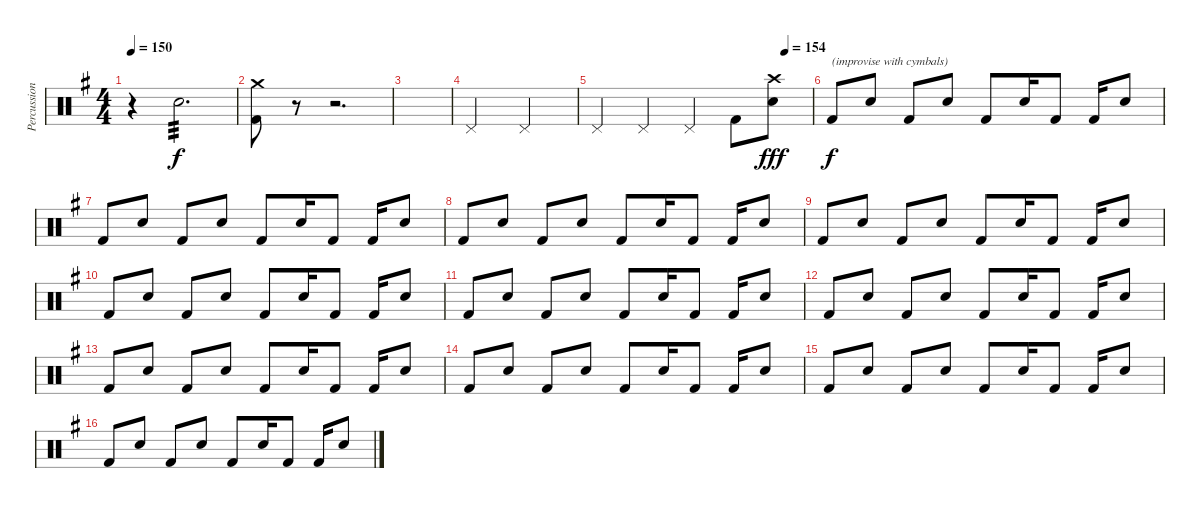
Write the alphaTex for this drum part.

\track ("Percussion" "Percussion") {instrument percussion}
\staff {score}
\articulation defaults
\ts (4 4)
\tempo 150
\clef neutral
\ks eminor
r.4{dy f} "Electric Snare (hit)".2{d tp 3} |
("Kick (hit) 2" "Crash medium (hit)").8 r.8 r.2{d} |
|
"Pedal Hi-Hat (hit)".2 "Pedal Hi-Hat (hit)".2 |
\tempo (154 0.875)
"Pedal Hi-Hat (hit)".4 "Pedal Hi-Hat (hit)".4 "Pedal Hi-Hat (hit)".4 "Kick (hit) 2".8 ("Electric Snare (hit)" "Crash high (hit)").8{dy fff} |
"Kick (hit) 2".8{txt "(improvise with cymbals)" dy f} "Electric Snare (hit)".8 "Kick (hit) 2".8 "Electric Snare (hit)".8 "Kick (hit) 2".8 "Electric Snare (hit)".16 "Kick (hit) 2".8 "Kick (hit) 2".16 "Electric Snare (hit)".8 |
"Kick (hit) 2".8 "Electric Snare (hit)".8 "Kick (hit) 2".8 "Electric Snare (hit)".8 "Kick (hit) 2".8 "Electric Snare (hit)".16 "Kick (hit) 2".8 "Kick (hit) 2".16 "Electric Snare (hit)".8 |
"Kick (hit) 2".8 "Electric Snare (hit)".8 "Kick (hit) 2".8 "Electric Snare (hit)".8 "Kick (hit) 2".8 "Electric Snare (hit)".16 "Kick (hit) 2".8 "Kick (hit) 2".16 "Electric Snare (hit)".8 |
"Kick (hit) 2".8 "Electric Snare (hit)".8 "Kick (hit) 2".8 "Electric Snare (hit)".8 "Kick (hit) 2".8 "Electric Snare (hit)".16 "Kick (hit) 2".8 "Kick (hit) 2".16 "Electric Snare (hit)".8 |
"Kick (hit) 2".8 "Electric Snare (hit)".8 "Kick (hit) 2".8 "Electric Snare (hit)".8 "Kick (hit) 2".8 "Electric Snare (hit)".16 "Kick (hit) 2".8 "Kick (hit) 2".16 "Electric Snare (hit)".8 |
"Kick (hit) 2".8 "Electric Snare (hit)".8 "Kick (hit) 2".8 "Electric Snare (hit)".8 "Kick (hit) 2".8 "Electric Snare (hit)".16 "Kick (hit) 2".8 "Kick (hit) 2".16 "Electric Snare (hit)".8 |
"Kick (hit) 2".8 "Electric Snare (hit)".8 "Kick (hit) 2".8 "Electric Snare (hit)".8 "Kick (hit) 2".8 "Electric Snare (hit)".16 "Kick (hit) 2".8 "Kick (hit) 2".16 "Electric Snare (hit)".8 |
"Kick (hit) 2".8 "Electric Snare (hit)".8 "Kick (hit) 2".8 "Electric Snare (hit)".8 "Kick (hit) 2".8 "Electric Snare (hit)".16 "Kick (hit) 2".8 "Kick (hit) 2".16 "Electric Snare (hit)".8 |
"Kick (hit) 2".8 "Electric Snare (hit)".8 "Kick (hit) 2".8 "Electric Snare (hit)".8 "Kick (hit) 2".8 "Electric Snare (hit)".16 "Kick (hit) 2".8 "Kick (hit) 2".16 "Electric Snare (hit)".8 |
"Kick (hit) 2".8 "Electric Snare (hit)".8 "Kick (hit) 2".8 "Electric Snare (hit)".8 "Kick (hit) 2".8 "Electric Snare (hit)".16 "Kick (hit) 2".8 "Kick (hit) 2".16 "Electric Snare (hit)".8 |
"Kick (hit) 2".8 "Electric Snare (hit)".8 "Kick (hit) 2".8 "Electric Snare (hit)".8 "Kick (hit) 2".8 "Electric Snare (hit)".16 "Kick (hit) 2".8 "Kick (hit) 2".16 "Electric Snare (hit)".8
